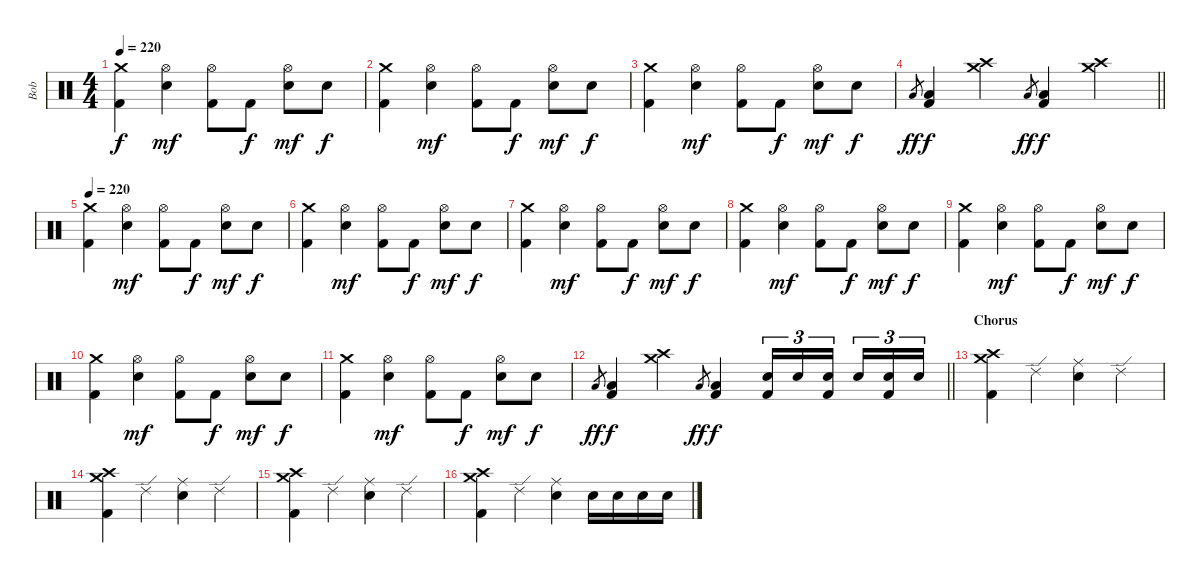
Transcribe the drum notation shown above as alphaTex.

\track ("Bob" "Bob") {instrument percussion}
\staff {score}
\articulation defaults
\ts (4 4)
\tempo 220
\clef neutral
\ks c
("Crash medium (hit)" "Kick (hit) 2").4{dy f} ("Hi-Hat (open)" "Electric Snare (hit)").4{dy mf} ("Hi-Hat (open)" "Kick (hit) 2").8 "Kick (hit) 2".8{dy f} ("Hi-Hat (open)" "Electric Snare (hit)").8{dy mf} "Electric Snare (hit)".8{dy f} |
("Crash medium (hit)" "Kick (hit) 2").4 ("Hi-Hat (open)" "Electric Snare (hit)").4{dy mf} ("Hi-Hat (open)" "Kick (hit) 2").8 "Kick (hit) 2".8{dy f} ("Hi-Hat (open)" "Electric Snare (hit)").8{dy mf} "Electric Snare (hit)".8{dy f} |
("Crash medium (hit)" "Kick (hit) 2").4 ("Hi-Hat (open)" "Electric Snare (hit)").4{dy mf} ("Hi-Hat (open)" "Kick (hit) 2").8 "Kick (hit) 2".8{dy f} ("Hi-Hat (open)" "Electric Snare (hit)").8{dy mf} "Electric Snare (hit)".8{dy f} |
\barLineRight lightlight "Low Floor Tom (hit)".8{gr dy ff}
("Low Floor Tom (hit)" "Kick (hit) 2").4{dy f} ("Crash medium (hit)" "Crash high (hit)").4 "Low Floor Tom (hit)".8{gr dy ff} ("Low Floor Tom (hit)" "Kick (hit) 2").4{dy f} ("Crash medium (hit)" "Crash high (hit)").4 |
\tempo 220
("Crash medium (hit)" "Kick (hit) 2").4 ("Hi-Hat (open)" "Electric Snare (hit)").4{dy mf} ("Hi-Hat (open)" "Kick (hit) 2").8 "Kick (hit) 2".8{dy f} ("Hi-Hat (open)" "Electric Snare (hit)").8{dy mf} "Electric Snare (hit)".8{dy f} |
("Crash medium (hit)" "Kick (hit) 2").4 ("Hi-Hat (open)" "Electric Snare (hit)").4{dy mf} ("Hi-Hat (open)" "Kick (hit) 2").8 "Kick (hit) 2".8{dy f} ("Hi-Hat (open)" "Electric Snare (hit)").8{dy mf} "Electric Snare (hit)".8{dy f} |
("Crash medium (hit)" "Kick (hit) 2").4 ("Hi-Hat (open)" "Electric Snare (hit)").4{dy mf} ("Hi-Hat (open)" "Kick (hit) 2").8 "Kick (hit) 2".8{dy f} ("Hi-Hat (open)" "Electric Snare (hit)").8{dy mf} "Electric Snare (hit)".8{dy f} |
("Crash medium (hit)" "Kick (hit) 2").4 ("Hi-Hat (open)" "Electric Snare (hit)").4{dy mf} ("Hi-Hat (open)" "Kick (hit) 2").8 "Kick (hit) 2".8{dy f} ("Hi-Hat (open)" "Electric Snare (hit)").8{dy mf} "Electric Snare (hit)".8{dy f} |
("Crash medium (hit)" "Kick (hit) 2").4 ("Hi-Hat (open)" "Electric Snare (hit)").4{dy mf} ("Hi-Hat (open)" "Kick (hit) 2").8 "Kick (hit) 2".8{dy f} ("Hi-Hat (open)" "Electric Snare (hit)").8{dy mf} "Electric Snare (hit)".8{dy f} |
("Crash medium (hit)" "Kick (hit) 2").4 ("Hi-Hat (open)" "Electric Snare (hit)").4{dy mf} ("Hi-Hat (open)" "Kick (hit) 2").8 "Kick (hit) 2".8{dy f} ("Hi-Hat (open)" "Electric Snare (hit)").8{dy mf} "Electric Snare (hit)".8{dy f} |
("Crash medium (hit)" "Kick (hit) 2").4 ("Hi-Hat (open)" "Electric Snare (hit)").4{dy mf} ("Hi-Hat (open)" "Kick (hit) 2").8 "Kick (hit) 2".8{dy f} ("Hi-Hat (open)" "Electric Snare (hit)").8{dy mf} "Electric Snare (hit)".8{dy f} |
\barLineRight lightlight "Low Floor Tom (hit)".8{gr dy ff}
("Low Floor Tom (hit)" "Kick (hit) 2").4{dy f} ("Crash medium (hit)" "Crash high (hit)").4 "Low Floor Tom (hit)".8{gr dy ff} ("Low Floor Tom (hit)" "Kick (hit) 2").4{dy f} ("Snare (hit) 2" "Kick (hit) 2").16{tu (3 2)} "Snare (hit) 2".16{tu (3 2)} ("Snare (hit) 2" "Kick (hit) 2").16{tu (3 2)} "Snare (hit) 2".16{tu (3 2)} ("Snare (hit) 2" "Kick (hit) 2").16{tu (3 2)} "Snare (hit) 2".16{tu (3 2)} |
\section ("" "Chorus")
("Crash high (hit)" "Crash medium (hit)" "Kick (hit) 2").4 "Ride (edge) 2".4 ("Ride (middle)" "Electric Snare (hit)").4 "Ride (edge) 2".4 |
("Crash high (hit)" "Crash medium (hit)" "Kick (hit) 2").4 "Ride (edge) 2".4 ("Ride (middle)" "Electric Snare (hit)").4 "Ride (edge) 2".4 |
("Crash high (hit)" "Crash medium (hit)" "Kick (hit) 2").4 "Ride (edge) 2".4 ("Ride (middle)" "Electric Snare (hit)").4 "Ride (edge) 2".4 |
("Crash high (hit)" "Crash medium (hit)" "Kick (hit) 2").4 "Ride (edge) 2".4 ("Ride (middle)" "Electric Snare (hit)").4 "Electric Snare (hit)".16 "Electric Snare (hit)".16 "Electric Snare (hit)".16 "Electric Snare (hit)".16
